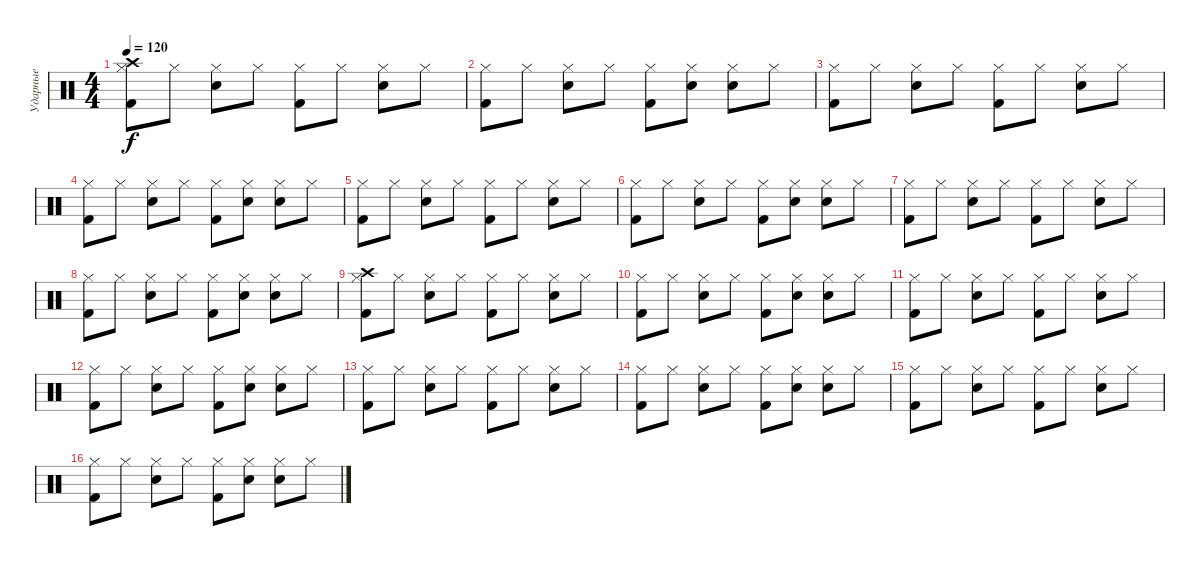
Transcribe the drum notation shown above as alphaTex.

\track ("Ударные" "Ударные") {instrument percussion}
\staff
\articulation defaults
\ts (4 4)
\tempo 120
\clef neutral
\ks c
("Hi-Hat (closed)" "Kick (hit) 2" "Crash high (hit)").8{dy f} "Hi-Hat (closed)".8 ("Hi-Hat (closed)" "Snare (hit) 2").8 "Hi-Hat (closed)".8 ("Hi-Hat (closed)" "Kick (hit) 2").8 "Hi-Hat (closed)".8 ("Hi-Hat (closed)" "Snare (hit) 2").8 "Hi-Hat (closed)".8 |
("Hi-Hat (closed)" "Kick (hit) 2").8 "Hi-Hat (closed)".8 ("Hi-Hat (closed)" "Snare (hit) 2").8 "Hi-Hat (closed)".8 ("Hi-Hat (closed)" "Kick (hit) 2").8 ("Hi-Hat (closed)" "Snare (hit) 2").8 ("Hi-Hat (closed)" "Snare (hit) 2").8 "Hi-Hat (closed)".8 |
("Hi-Hat (closed)" "Kick (hit) 2").8 "Hi-Hat (closed)".8 ("Hi-Hat (closed)" "Snare (hit) 2").8 "Hi-Hat (closed)".8 ("Hi-Hat (closed)" "Kick (hit) 2").8 "Hi-Hat (closed)".8 ("Hi-Hat (closed)" "Snare (hit) 2").8 "Hi-Hat (closed)".8 |
("Hi-Hat (closed)" "Kick (hit) 2").8 "Hi-Hat (closed)".8 ("Hi-Hat (closed)" "Snare (hit) 2").8 "Hi-Hat (closed)".8 ("Hi-Hat (closed)" "Kick (hit) 2").8 ("Hi-Hat (closed)" "Snare (hit) 2").8 ("Hi-Hat (closed)" "Snare (hit) 2").8 "Hi-Hat (closed)".8 |
("Hi-Hat (closed)" "Kick (hit) 2").8 "Hi-Hat (closed)".8 ("Hi-Hat (closed)" "Snare (hit) 2").8 "Hi-Hat (closed)".8 ("Hi-Hat (closed)" "Kick (hit) 2").8 "Hi-Hat (closed)".8 ("Hi-Hat (closed)" "Snare (hit) 2").8 "Hi-Hat (closed)".8 |
("Hi-Hat (closed)" "Kick (hit) 2").8 "Hi-Hat (closed)".8 ("Hi-Hat (closed)" "Snare (hit) 2").8 "Hi-Hat (closed)".8 ("Hi-Hat (closed)" "Kick (hit) 2").8 ("Hi-Hat (closed)" "Snare (hit) 2").8 ("Hi-Hat (closed)" "Snare (hit) 2").8 "Hi-Hat (closed)".8 |
("Hi-Hat (closed)" "Kick (hit) 2").8 "Hi-Hat (closed)".8 ("Hi-Hat (closed)" "Snare (hit) 2").8 "Hi-Hat (closed)".8 ("Hi-Hat (closed)" "Kick (hit) 2").8 "Hi-Hat (closed)".8 ("Hi-Hat (closed)" "Snare (hit) 2").8 "Hi-Hat (closed)".8 |
("Hi-Hat (closed)" "Kick (hit) 2").8 "Hi-Hat (closed)".8 ("Hi-Hat (closed)" "Snare (hit) 2").8 "Hi-Hat (closed)".8 ("Hi-Hat (closed)" "Kick (hit) 2").8 ("Hi-Hat (closed)" "Snare (hit) 2").8 ("Hi-Hat (closed)" "Snare (hit) 2").8 "Hi-Hat (closed)".8 |
("Hi-Hat (closed)" "Kick (hit) 2" "Crash high (hit)").8 "Hi-Hat (closed)".8 ("Hi-Hat (closed)" "Snare (hit) 2").8 "Hi-Hat (closed)".8 ("Hi-Hat (closed)" "Kick (hit) 2").8 "Hi-Hat (closed)".8 ("Hi-Hat (closed)" "Snare (hit) 2").8 "Hi-Hat (closed)".8 |
("Hi-Hat (closed)" "Kick (hit) 2").8 "Hi-Hat (closed)".8 ("Hi-Hat (closed)" "Snare (hit) 2").8 "Hi-Hat (closed)".8 ("Hi-Hat (closed)" "Kick (hit) 2").8 ("Hi-Hat (closed)" "Snare (hit) 2").8 ("Hi-Hat (closed)" "Snare (hit) 2").8 "Hi-Hat (closed)".8 |
("Hi-Hat (closed)" "Kick (hit) 2").8 "Hi-Hat (closed)".8 ("Hi-Hat (closed)" "Snare (hit) 2").8 "Hi-Hat (closed)".8 ("Hi-Hat (closed)" "Kick (hit) 2").8 "Hi-Hat (closed)".8 ("Hi-Hat (closed)" "Snare (hit) 2").8 "Hi-Hat (closed)".8 |
("Hi-Hat (closed)" "Kick (hit) 2").8 "Hi-Hat (closed)".8 ("Hi-Hat (closed)" "Snare (hit) 2").8 "Hi-Hat (closed)".8 ("Hi-Hat (closed)" "Kick (hit) 2").8 ("Hi-Hat (closed)" "Snare (hit) 2").8 ("Hi-Hat (closed)" "Snare (hit) 2").8 "Hi-Hat (closed)".8 |
("Hi-Hat (closed)" "Kick (hit) 2").8 "Hi-Hat (closed)".8 ("Hi-Hat (closed)" "Snare (hit) 2").8 "Hi-Hat (closed)".8 ("Hi-Hat (closed)" "Kick (hit) 2").8 "Hi-Hat (closed)".8 ("Hi-Hat (closed)" "Snare (hit) 2").8 "Hi-Hat (closed)".8 |
("Hi-Hat (closed)" "Kick (hit) 2").8 "Hi-Hat (closed)".8 ("Hi-Hat (closed)" "Snare (hit) 2").8 "Hi-Hat (closed)".8 ("Hi-Hat (closed)" "Kick (hit) 2").8 ("Hi-Hat (closed)" "Snare (hit) 2").8 ("Hi-Hat (closed)" "Snare (hit) 2").8 "Hi-Hat (closed)".8 |
("Hi-Hat (closed)" "Kick (hit) 2").8 "Hi-Hat (closed)".8 ("Hi-Hat (closed)" "Snare (hit) 2").8 "Hi-Hat (closed)".8 ("Hi-Hat (closed)" "Kick (hit) 2").8 "Hi-Hat (closed)".8 ("Hi-Hat (closed)" "Snare (hit) 2").8 "Hi-Hat (closed)".8 |
("Hi-Hat (closed)" "Kick (hit) 2").8 "Hi-Hat (closed)".8 ("Hi-Hat (closed)" "Snare (hit) 2").8 "Hi-Hat (closed)".8 ("Hi-Hat (closed)" "Kick (hit) 2").8 ("Hi-Hat (closed)" "Snare (hit) 2").8 ("Hi-Hat (closed)" "Snare (hit) 2").8 "Hi-Hat (closed)".8
